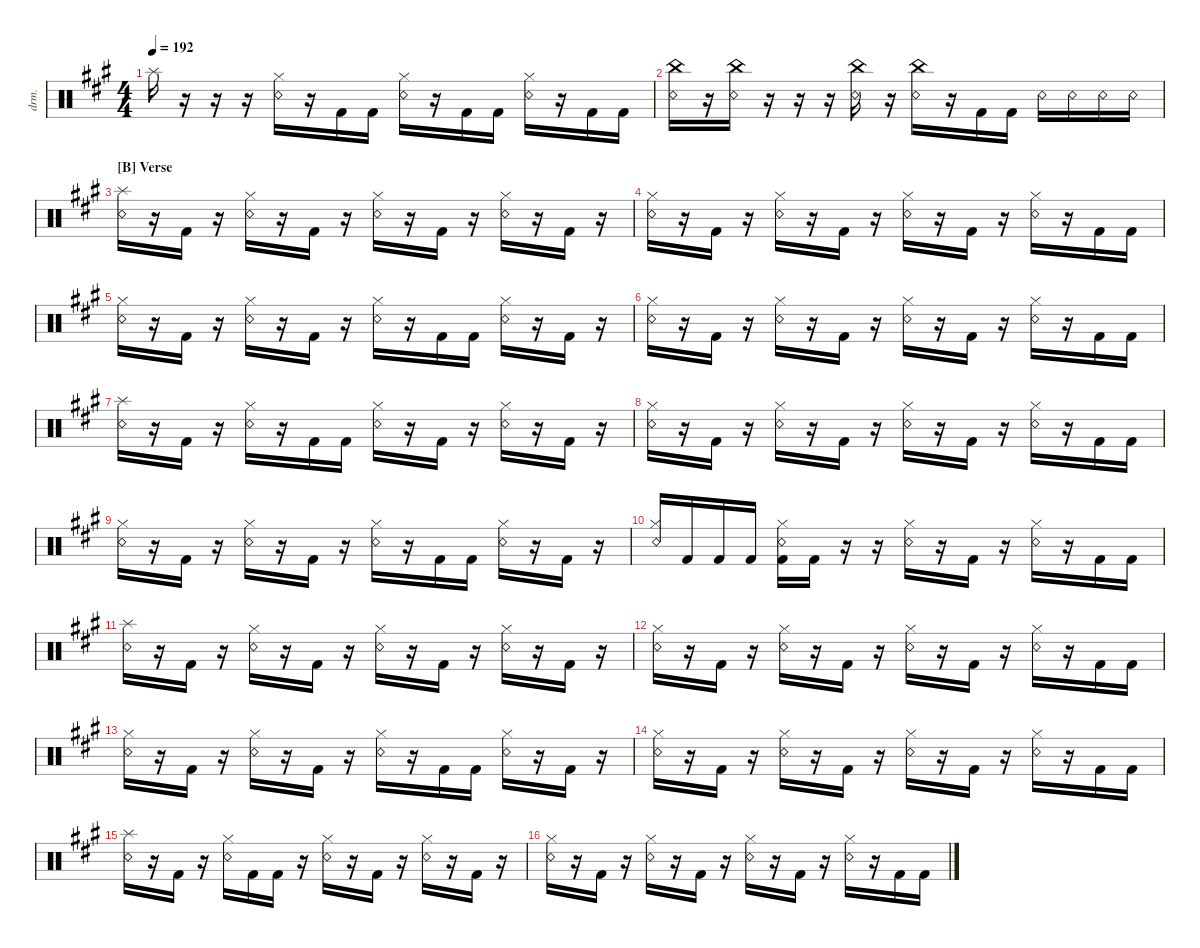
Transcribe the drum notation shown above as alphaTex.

\defaultSystemsLayout 4
\hideDynamics
\bracketExtendMode nobrackets
\otherSystemsTrackNameOrientation horizontal
\track ("Drumkit" "drm.") {instrument percussion}
\staff {score}
\articulation defaults
\ts (4 4)
\tempo 192
\clef neutral
\ks a "Splash (hit)"{acc forcenatural}.16{dy ff beam Down}
r.16{beam Down} r.16{beam Down} r.16{beam Down} ("Hi-Hat (closed)"{acc forcenatural} "Snare (rim shot)"{acc forcenatural}).16{beam Down} r.16{beam Down} "Kick (hit) 2"{acc forcenatural}.16{beam Down} "Kick (hit) 2"{acc forcenatural}.16{beam Down} ("Hi-Hat (closed)"{acc forcenatural} "Snare (rim shot)"{acc forcenatural}).16{beam Down} r.16{beam Down} "Kick (hit) 2"{acc forcenatural}.16{beam Down} "Kick (hit) 2"{acc forcenatural}.16{beam Down} ("Hi-Hat (closed)"{acc forcenatural} "Snare (rim shot)"{acc forcenatural}).16{beam Down} r.16{beam Down} "Kick (hit) 2"{acc forcenatural}.16{beam Down} "Kick (hit) 2"{acc forcenatural}.16{beam Down} |
("Snare (rim shot)"{acc forcenatural} "China (hit)"{acc forcenatural}).16{beam Down} r.16{beam Down} ("China (hit)"{acc forcenatural} "Snare (rim shot)"{acc forcenatural}).16{beam Down} r.16{beam Down} r.16{beam Down} r.16{beam Down} ("Snare (rim shot)"{acc forcenatural} "China (hit)"{acc forcenatural}).16{beam Down} r.16{beam Down} ("Snare (rim shot)"{acc forcenatural} "China (hit)"{acc forcenatural}).16{beam Down} r.16{beam Down} "Kick (hit) 2"{acc forcenatural}.16{beam Down} "Kick (hit) 2"{acc forcenatural}.16{beam Down} "Snare (rim shot)"{acc forcenatural}.16{beam Down} "Snare (rim shot)"{acc forcenatural}.16{beam Down} "Snare (rim shot)"{acc forcenatural}.16{beam Down} "Snare (rim shot)"{acc forcenatural}.16{beam Down} |
\section ("B" "Verse")
("Snare (rim shot)"{acc forcenatural} "Splash (hit)"{acc forcenatural}).16{beam Down} r.16{beam Down} "Kick (hit) 2"{acc forcenatural}.16{beam Down} r.16{beam Down} ("Snare (rim shot)"{acc forcenatural} "Hi-Hat (closed)"{acc forcenatural}).16{beam Down} r.16{beam Down} "Kick (hit) 2"{acc forcenatural}.16{beam Down} r.16{beam Down} ("Snare (rim shot)"{acc forcenatural} "Hi-Hat (closed)"{acc forcenatural}).16{beam Down} r.16{beam Down} "Kick (hit) 2"{acc forcenatural}.16{beam Down} r.16{beam Down} ("Snare (rim shot)"{acc forcenatural} "Hi-Hat (closed)"{acc forcenatural}).16{beam Down} r.16{beam Down} "Kick (hit) 2"{acc forcenatural}.16{beam Down} r.16{beam Down} |
("Snare (rim shot)"{acc forcenatural} "Hi-Hat (closed)"{acc forcenatural}).16{beam Down} r.16{beam Down} "Kick (hit) 2"{acc forcenatural}.16{beam Down} r.16{beam Down} ("Snare (rim shot)"{acc forcenatural} "Hi-Hat (closed)"{acc forcenatural}).16{beam Down} r.16{beam Down} "Kick (hit) 2"{acc forcenatural}.16{beam Down} r.16{beam Down} ("Snare (rim shot)"{acc forcenatural} "Hi-Hat (closed)"{acc forcenatural}).16{beam Down} r.16{beam Down} "Kick (hit) 2"{acc forcenatural}.16{beam Down} r.16{beam Down} ("Snare (rim shot)"{acc forcenatural} "Hi-Hat (closed)"{acc forcenatural}).16{beam Down} r.16{beam Down} "Kick (hit) 2"{acc forcenatural}.16{beam Down} "Kick (hit) 2"{acc forcenatural}.16{beam Down} |
("Snare (rim shot)"{acc forcenatural} "Hi-Hat (closed)"{acc forcenatural}).16{beam Down} r.16{beam Down} "Kick (hit) 2"{acc forcenatural}.16{beam Down} r.16{beam Down} ("Snare (rim shot)"{acc forcenatural} "Hi-Hat (closed)"{acc forcenatural}).16{beam Down} r.16{beam Down} "Kick (hit) 2"{acc forcenatural}.16{beam Down} r.16{beam Down} ("Snare (rim shot)"{acc forcenatural} "Hi-Hat (closed)"{acc forcenatural}).16{beam Down} r.16{beam Down} "Kick (hit) 2"{acc forcenatural}.16{beam Down} "Kick (hit) 2"{acc forcenatural}.16{beam Down} ("Snare (rim shot)"{acc forcenatural} "Hi-Hat (closed)"{acc forcenatural}).16{beam Down} r.16{beam Down} "Kick (hit) 2"{acc forcenatural}.16{beam Down} r.16{beam Down} |
("Snare (rim shot)"{acc forcenatural} "Hi-Hat (closed)"{acc forcenatural}).16{beam Down} r.16{beam Down} "Kick (hit) 2"{acc forcenatural}.16{beam Down} r.16{beam Down} ("Snare (rim shot)"{acc forcenatural} "Hi-Hat (closed)"{acc forcenatural}).16{beam Down} r.16{beam Down} "Kick (hit) 2"{acc forcenatural}.16{beam Down} r.16{beam Down} ("Snare (rim shot)"{acc forcenatural} "Hi-Hat (closed)"{acc forcenatural}).16{beam Down} r.16{beam Down} "Kick (hit) 2"{acc forcenatural}.16{beam Down} r.16{beam Down} ("Snare (rim shot)"{acc forcenatural} "Hi-Hat (closed)"{acc forcenatural}).16{beam Down} r.16{beam Down} "Kick (hit) 2"{acc forcenatural}.16{beam Down} "Kick (hit) 2"{acc forcenatural}.16{beam Down} |
("Snare (rim shot)"{acc forcenatural} "Splash (hit)"{acc forcenatural}).16{beam Down} r.16{beam Down} "Kick (hit) 2"{acc forcenatural}.16{beam Down} r.16{beam Down} ("Snare (rim shot)"{acc forcenatural} "Hi-Hat (closed)"{acc forcenatural}).16{beam Down} r.16{beam Down} "Kick (hit) 2"{acc forcenatural}.16{beam Down} "Kick (hit) 2"{acc forcenatural}.16{beam Down} ("Snare (rim shot)"{acc forcenatural} "Hi-Hat (closed)"{acc forcenatural}).16{beam Down} r.16{beam Down} "Kick (hit) 2"{acc forcenatural}.16{beam Down} r.16{beam Down} ("Snare (rim shot)"{acc forcenatural} "Hi-Hat (closed)"{acc forcenatural}).16{beam Down} r.16{beam Down} "Kick (hit) 2"{acc forcenatural}.16{beam Down} r.16{beam Down} |
("Snare (rim shot)"{acc forcenatural} "Hi-Hat (closed)"{acc forcenatural}).16{beam Down} r.16{beam Down} "Kick (hit) 2"{acc forcenatural}.16{beam Down} r.16{beam Down} ("Snare (rim shot)"{acc forcenatural} "Hi-Hat (closed)"{acc forcenatural}).16{beam Down} r.16{beam Down} "Kick (hit) 2"{acc forcenatural}.16{beam Down} r.16{beam Down} ("Snare (rim shot)"{acc forcenatural} "Hi-Hat (closed)"{acc forcenatural}).16{beam Down} r.16{beam Down} "Kick (hit) 2"{acc forcenatural}.16{beam Down} r.16{beam Down} ("Snare (rim shot)"{acc forcenatural} "Hi-Hat (closed)"{acc forcenatural}).16{beam Down} r.16{beam Down} "Kick (hit) 2"{acc forcenatural}.16{beam Down} "Kick (hit) 2"{acc forcenatural}.16{beam Down} |
("Snare (rim shot)"{acc forcenatural} "Hi-Hat (closed)"{acc forcenatural}).16{beam Down} r.16{beam Down} "Kick (hit) 2"{acc forcenatural}.16{beam Down} r.16{beam Down} ("Snare (rim shot)"{acc forcenatural} "Hi-Hat (closed)"{acc forcenatural}).16{beam Down} r.16{beam Down} "Kick (hit) 2"{acc forcenatural}.16{beam Down} r.16{beam Down} ("Snare (rim shot)"{acc forcenatural} "Hi-Hat (closed)"{acc forcenatural}).16{beam Down} r.16{beam Down} "Kick (hit) 2"{acc forcenatural}.16{beam Down} "Kick (hit) 2"{acc forcenatural}.16{beam Down} ("Snare (rim shot)"{acc forcenatural} "Hi-Hat (closed)"{acc forcenatural}).16{beam Down} r.16{beam Down} "Kick (hit) 2"{acc forcenatural}.16{beam Down} r.16{beam Down} |
("Snare (rim shot)"{acc forcenatural} "Hi-Hat (closed)"{acc forcenatural}).16{beam Up} "Kick (hit) 2"{acc forcenatural}.16{beam Up} "Kick (hit) 2"{acc forcenatural}.16{beam Up} "Kick (hit) 2"{acc forcenatural}.16{beam Up} ("Hi-Hat (closed)"{acc forcenatural} "Kick (hit) 2"{acc forcenatural} "Snare (rim shot)"{acc forcenatural}).16{beam Down} "Kick (hit) 2"{acc forcenatural}.16{beam Down} r.16{beam Down} r.16{beam Down} ("Snare (rim shot)"{acc forcenatural} "Hi-Hat (closed)"{acc forcenatural}).16{beam Down} r.16{beam Down} "Kick (hit) 2"{acc forcenatural}.16{beam Down} r.16{beam Down} ("Snare (rim shot)"{acc forcenatural} "Hi-Hat (closed)"{acc forcenatural}).16{beam Down} r.16{beam Down} "Kick (hit) 2"{acc forcenatural}.16{beam Down} "Kick (hit) 2"{acc forcenatural}.16{beam Down} |
("Snare (rim shot)"{acc forcenatural} "Splash (hit)"{acc forcenatural}).16{beam Down} r.16{beam Down} "Kick (hit) 2"{acc forcenatural}.16{beam Down} r.16{beam Down} ("Snare (rim shot)"{acc forcenatural} "Hi-Hat (closed)"{acc forcenatural}).16{beam Down} r.16{beam Down} "Kick (hit) 2"{acc forcenatural}.16{beam Down} r.16{beam Down} ("Snare (rim shot)"{acc forcenatural} "Hi-Hat (closed)"{acc forcenatural}).16{beam Down} r.16{beam Down} "Kick (hit) 2"{acc forcenatural}.16{beam Down} r.16{beam Down} ("Snare (rim shot)"{acc forcenatural} "Hi-Hat (closed)"{acc forcenatural}).16{beam Down} r.16{beam Down} "Kick (hit) 2"{acc forcenatural}.16{beam Down} r.16{beam Down} |
("Snare (rim shot)"{acc forcenatural} "Hi-Hat (closed)"{acc forcenatural}).16{beam Down} r.16{beam Down} "Kick (hit) 2"{acc forcenatural}.16{beam Down} r.16{beam Down} ("Snare (rim shot)"{acc forcenatural} "Hi-Hat (closed)"{acc forcenatural}).16{beam Down} r.16{beam Down} "Kick (hit) 2"{acc forcenatural}.16{beam Down} r.16{beam Down} ("Snare (rim shot)"{acc forcenatural} "Hi-Hat (closed)"{acc forcenatural}).16{beam Down} r.16{beam Down} "Kick (hit) 2"{acc forcenatural}.16{beam Down} r.16{beam Down} ("Snare (rim shot)"{acc forcenatural} "Hi-Hat (closed)"{acc forcenatural}).16{beam Down} r.16{beam Down} "Kick (hit) 2"{acc forcenatural}.16{beam Down} "Kick (hit) 2"{acc forcenatural}.16{beam Down} |
("Snare (rim shot)"{acc forcenatural} "Hi-Hat (closed)"{acc forcenatural}).16{beam Down} r.16{beam Down} "Kick (hit) 2"{acc forcenatural}.16{beam Down} r.16{beam Down} ("Snare (rim shot)"{acc forcenatural} "Hi-Hat (closed)"{acc forcenatural}).16{beam Down} r.16{beam Down} "Kick (hit) 2"{acc forcenatural}.16{beam Down} r.16{beam Down} ("Snare (rim shot)"{acc forcenatural} "Hi-Hat (closed)"{acc forcenatural}).16{beam Down} r.16{beam Down} "Kick (hit) 2"{acc forcenatural}.16{beam Down} "Kick (hit) 2"{acc forcenatural}.16{beam Down} ("Snare (rim shot)"{acc forcenatural} "Hi-Hat (closed)"{acc forcenatural}).16{beam Down} r.16{beam Down} "Kick (hit) 2"{acc forcenatural}.16{beam Down} r.16{beam Down} |
("Snare (rim shot)"{acc forcenatural} "Hi-Hat (closed)"{acc forcenatural}).16{beam Down} r.16{beam Down} "Kick (hit) 2"{acc forcenatural}.16{beam Down} r.16{beam Down} ("Snare (rim shot)"{acc forcenatural} "Hi-Hat (closed)"{acc forcenatural}).16{beam Down} r.16{beam Down} "Kick (hit) 2"{acc forcenatural}.16{beam Down} r.16{beam Down} ("Snare (rim shot)"{acc forcenatural} "Hi-Hat (closed)"{acc forcenatural}).16{beam Down} r.16{beam Down} "Kick (hit) 2"{acc forcenatural}.16{beam Down} r.16{beam Down} ("Snare (rim shot)"{acc forcenatural} "Hi-Hat (closed)"{acc forcenatural}).16{beam Down} r.16{beam Down} "Kick (hit) 2"{acc forcenatural}.16{beam Down} "Kick (hit) 2"{acc forcenatural}.16{beam Down} |
("Snare (rim shot)"{acc forcenatural} "Splash (hit)"{acc forcenatural}).16{beam Down} r.16{beam Down} "Kick (hit) 2"{acc forcenatural}.16{beam Down} r.16{beam Down} ("Snare (rim shot)"{acc forcenatural} "Hi-Hat (closed)"{acc forcenatural}).16{beam Down} "Kick (hit) 2"{acc forcenatural}.16{beam Down} "Kick (hit) 2"{acc forcenatural}.16{beam Down} r.16{beam Down} ("Snare (rim shot)"{acc forcenatural} "Hi-Hat (closed)"{acc forcenatural}).16{beam Down} r.16{beam Down} "Kick (hit) 2"{acc forcenatural}.16{beam Down} r.16{beam Down} ("Snare (rim shot)"{acc forcenatural} "Hi-Hat (closed)"{acc forcenatural}).16{beam Down} r.16{beam Down} "Kick (hit) 2"{acc forcenatural}.16{beam Down} r.16{beam Down} |
("Snare (rim shot)"{acc forcenatural} "Hi-Hat (closed)"{acc forcenatural}).16{beam Down} r.16{beam Down} "Kick (hit) 2"{acc forcenatural}.16{beam Down} r.16{beam Down} ("Snare (rim shot)"{acc forcenatural} "Hi-Hat (closed)"{acc forcenatural}).16{beam Down} r.16{beam Down} "Kick (hit) 2"{acc forcenatural}.16{beam Down} r.16{beam Down} ("Snare (rim shot)"{acc forcenatural} "Hi-Hat (closed)"{acc forcenatural}).16{beam Down} r.16{beam Down} "Kick (hit) 2"{acc forcenatural}.16{beam Down} r.16{beam Down} ("Snare (rim shot)"{acc forcenatural} "Hi-Hat (closed)"{acc forcenatural}).16{beam Down} r.16{beam Down} "Kick (hit) 2"{acc forcenatural}.16{beam Down} "Kick (hit) 2"{acc forcenatural}.16{beam Down}
